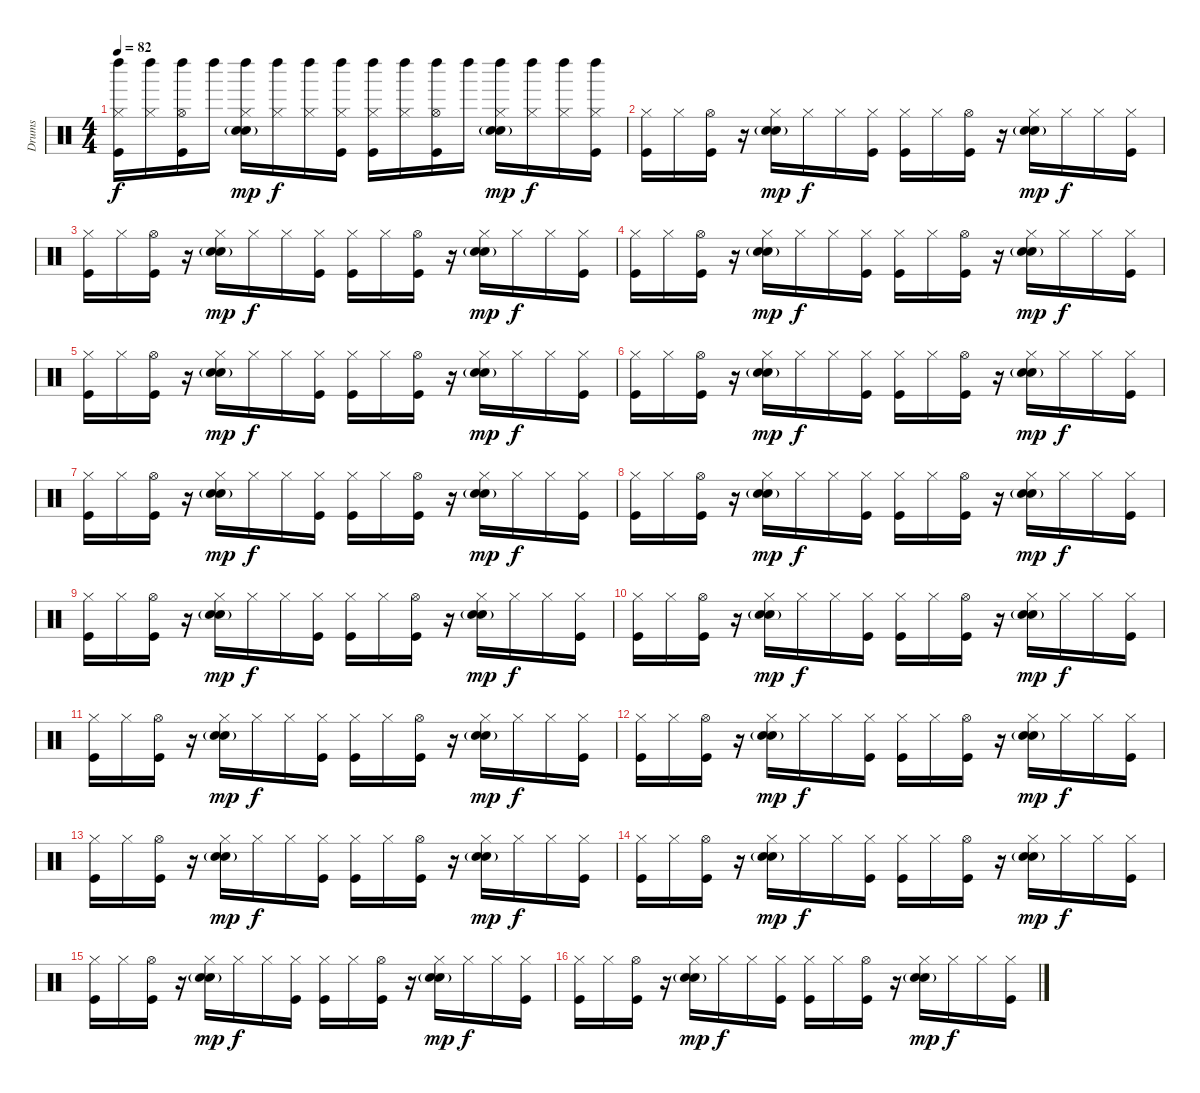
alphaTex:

\track ("Drums" "Drums") {instrument percussion}
\staff {score}
\articulation defaults
\ts (4 4)
\tempo 82
\clef neutral
\ks c
("Left Maraca (hit)" "Hi-Hat (closed)" "Kick (hit)").16{dy f} ("Left Maraca (hit)" "Hi-Hat (closed)").16 ("Left Maraca (hit)" "Hi-Hat (open)" "Kick (hit)").16 "Left Maraca (hit)".16 ("Left Maraca (hit)" "Hi-Hat (closed)" "Hand Clap (hit)" "Electric Snare (hit)"{g}).16{dy mp} ("Left Maraca (hit)" "Hi-Hat (closed)").16{dy f} ("Left Maraca (hit)" "Hi-Hat (closed)").16 ("Left Maraca (hit)" "Hi-Hat (closed)" "Kick (hit)").16 ("Left Maraca (hit)" "Hi-Hat (closed)" "Kick (hit)").16 ("Left Maraca (hit)" "Hi-Hat (closed)").16 ("Left Maraca (hit)" "Hi-Hat (open)" "Kick (hit)").16 "Left Maraca (hit)".16 ("Left Maraca (hit)" "Hi-Hat (closed)" "Hand Clap (hit)" "Electric Snare (hit)"{g}).16{dy mp} ("Left Maraca (hit)" "Hi-Hat (closed)").16{dy f} ("Left Maraca (hit)" "Hi-Hat (closed)").16 ("Left Maraca (hit)" "Hi-Hat (closed)" "Kick (hit)").16 |
("Hi-Hat (closed)" "Kick (hit)").16 "Hi-Hat (closed)".16 ("Hi-Hat (open)" "Kick (hit)").16 r.16 ("Hi-Hat (closed)" "Hand Clap (hit)" "Electric Snare (hit)"{g}).16{dy mp} "Hi-Hat (closed)".16{dy f} "Hi-Hat (closed)".16 ("Hi-Hat (closed)" "Kick (hit)").16 ("Hi-Hat (closed)" "Kick (hit)").16 "Hi-Hat (closed)".16 ("Hi-Hat (open)" "Kick (hit)").16 r.16 ("Hi-Hat (closed)" "Hand Clap (hit)" "Electric Snare (hit)"{g}).16{dy mp} "Hi-Hat (closed)".16{dy f} "Hi-Hat (closed)".16 ("Hi-Hat (closed)" "Kick (hit)").16 |
("Hi-Hat (closed)" "Kick (hit)").16 "Hi-Hat (closed)".16 ("Hi-Hat (open)" "Kick (hit)").16 r.16 ("Hi-Hat (closed)" "Hand Clap (hit)" "Electric Snare (hit)"{g}).16{dy mp} "Hi-Hat (closed)".16{dy f} "Hi-Hat (closed)".16 ("Hi-Hat (closed)" "Kick (hit)").16 ("Hi-Hat (closed)" "Kick (hit)").16 "Hi-Hat (closed)".16 ("Hi-Hat (open)" "Kick (hit)").16 r.16 ("Hi-Hat (closed)" "Hand Clap (hit)" "Electric Snare (hit)"{g}).16{dy mp} "Hi-Hat (closed)".16{dy f} "Hi-Hat (closed)".16 ("Hi-Hat (closed)" "Kick (hit)").16 |
("Hi-Hat (closed)" "Kick (hit)").16 "Hi-Hat (closed)".16 ("Hi-Hat (open)" "Kick (hit)").16 r.16 ("Hi-Hat (closed)" "Hand Clap (hit)" "Electric Snare (hit)"{g}).16{dy mp} "Hi-Hat (closed)".16{dy f} "Hi-Hat (closed)".16 ("Hi-Hat (closed)" "Kick (hit)").16 ("Hi-Hat (closed)" "Kick (hit)").16 "Hi-Hat (closed)".16 ("Hi-Hat (open)" "Kick (hit)").16 r.16 ("Hi-Hat (closed)" "Hand Clap (hit)" "Electric Snare (hit)"{g}).16{dy mp} "Hi-Hat (closed)".16{dy f} "Hi-Hat (closed)".16 ("Hi-Hat (closed)" "Kick (hit)").16 |
("Hi-Hat (closed)" "Kick (hit)").16 "Hi-Hat (closed)".16 ("Hi-Hat (open)" "Kick (hit)").16 r.16 ("Hi-Hat (closed)" "Hand Clap (hit)" "Electric Snare (hit)"{g}).16{dy mp} "Hi-Hat (closed)".16{dy f} "Hi-Hat (closed)".16 ("Hi-Hat (closed)" "Kick (hit)").16 ("Hi-Hat (closed)" "Kick (hit)").16 "Hi-Hat (closed)".16 ("Hi-Hat (open)" "Kick (hit)").16 r.16 ("Hi-Hat (closed)" "Hand Clap (hit)" "Electric Snare (hit)"{g}).16{dy mp} "Hi-Hat (closed)".16{dy f} "Hi-Hat (closed)".16 ("Hi-Hat (closed)" "Kick (hit)").16 |
("Hi-Hat (closed)" "Kick (hit)").16 "Hi-Hat (closed)".16 ("Hi-Hat (open)" "Kick (hit)").16 r.16 ("Hi-Hat (closed)" "Hand Clap (hit)" "Electric Snare (hit)"{g}).16{dy mp} "Hi-Hat (closed)".16{dy f} "Hi-Hat (closed)".16 ("Hi-Hat (closed)" "Kick (hit)").16 ("Hi-Hat (closed)" "Kick (hit)").16 "Hi-Hat (closed)".16 ("Hi-Hat (open)" "Kick (hit)").16 r.16 ("Hi-Hat (closed)" "Hand Clap (hit)" "Electric Snare (hit)"{g}).16{dy mp} "Hi-Hat (closed)".16{dy f} "Hi-Hat (closed)".16 ("Hi-Hat (closed)" "Kick (hit)").16 |
("Hi-Hat (closed)" "Kick (hit)").16 "Hi-Hat (closed)".16 ("Hi-Hat (open)" "Kick (hit)").16 r.16 ("Hi-Hat (closed)" "Hand Clap (hit)" "Electric Snare (hit)"{g}).16{dy mp} "Hi-Hat (closed)".16{dy f} "Hi-Hat (closed)".16 ("Hi-Hat (closed)" "Kick (hit)").16 ("Hi-Hat (closed)" "Kick (hit)").16 "Hi-Hat (closed)".16 ("Hi-Hat (open)" "Kick (hit)").16 r.16 ("Hi-Hat (closed)" "Hand Clap (hit)" "Electric Snare (hit)"{g}).16{dy mp} "Hi-Hat (closed)".16{dy f} "Hi-Hat (closed)".16 ("Hi-Hat (closed)" "Kick (hit)").16 |
("Hi-Hat (closed)" "Kick (hit)").16 "Hi-Hat (closed)".16 ("Hi-Hat (open)" "Kick (hit)").16 r.16 ("Hi-Hat (closed)" "Hand Clap (hit)" "Electric Snare (hit)"{g}).16{dy mp} "Hi-Hat (closed)".16{dy f} "Hi-Hat (closed)".16 ("Hi-Hat (closed)" "Kick (hit)").16 ("Hi-Hat (closed)" "Kick (hit)").16 "Hi-Hat (closed)".16 ("Hi-Hat (open)" "Kick (hit)").16 r.16 ("Hi-Hat (closed)" "Hand Clap (hit)" "Electric Snare (hit)"{g}).16{dy mp} "Hi-Hat (closed)".16{dy f} "Hi-Hat (closed)".16 ("Hi-Hat (closed)" "Kick (hit)").16 |
("Hi-Hat (closed)" "Kick (hit)").16 "Hi-Hat (closed)".16 ("Hi-Hat (open)" "Kick (hit)").16 r.16 ("Hi-Hat (closed)" "Hand Clap (hit)" "Electric Snare (hit)"{g}).16{dy mp} "Hi-Hat (closed)".16{dy f} "Hi-Hat (closed)".16 ("Hi-Hat (closed)" "Kick (hit)").16 ("Hi-Hat (closed)" "Kick (hit)").16 "Hi-Hat (closed)".16 ("Hi-Hat (open)" "Kick (hit)").16 r.16 ("Hi-Hat (closed)" "Hand Clap (hit)" "Electric Snare (hit)"{g}).16{dy mp} "Hi-Hat (closed)".16{dy f} "Hi-Hat (closed)".16 ("Hi-Hat (closed)" "Kick (hit)").16 |
("Hi-Hat (closed)" "Kick (hit)").16 "Hi-Hat (closed)".16 ("Hi-Hat (open)" "Kick (hit)").16 r.16 ("Hi-Hat (closed)" "Hand Clap (hit)" "Electric Snare (hit)"{g}).16{dy mp} "Hi-Hat (closed)".16{dy f} "Hi-Hat (closed)".16 ("Hi-Hat (closed)" "Kick (hit)").16 ("Hi-Hat (closed)" "Kick (hit)").16 "Hi-Hat (closed)".16 ("Hi-Hat (open)" "Kick (hit)").16 r.16 ("Hi-Hat (closed)" "Hand Clap (hit)" "Electric Snare (hit)"{g}).16{dy mp} "Hi-Hat (closed)".16{dy f} "Hi-Hat (closed)".16 ("Hi-Hat (closed)" "Kick (hit)").16 |
("Hi-Hat (closed)" "Kick (hit)").16 "Hi-Hat (closed)".16 ("Hi-Hat (open)" "Kick (hit)").16 r.16 ("Hi-Hat (closed)" "Hand Clap (hit)" "Electric Snare (hit)"{g}).16{dy mp} "Hi-Hat (closed)".16{dy f} "Hi-Hat (closed)".16 ("Hi-Hat (closed)" "Kick (hit)").16 ("Hi-Hat (closed)" "Kick (hit)").16 "Hi-Hat (closed)".16 ("Hi-Hat (open)" "Kick (hit)").16 r.16 ("Hi-Hat (closed)" "Hand Clap (hit)" "Electric Snare (hit)"{g}).16{dy mp} "Hi-Hat (closed)".16{dy f} "Hi-Hat (closed)".16 ("Hi-Hat (closed)" "Kick (hit)").16 |
("Hi-Hat (closed)" "Kick (hit)").16 "Hi-Hat (closed)".16 ("Hi-Hat (open)" "Kick (hit)").16 r.16 ("Hi-Hat (closed)" "Hand Clap (hit)" "Electric Snare (hit)"{g}).16{dy mp} "Hi-Hat (closed)".16{dy f} "Hi-Hat (closed)".16 ("Hi-Hat (closed)" "Kick (hit)").16 ("Hi-Hat (closed)" "Kick (hit)").16 "Hi-Hat (closed)".16 ("Hi-Hat (open)" "Kick (hit)").16 r.16 ("Hi-Hat (closed)" "Hand Clap (hit)" "Electric Snare (hit)"{g}).16{dy mp} "Hi-Hat (closed)".16{dy f} "Hi-Hat (closed)".16 ("Hi-Hat (closed)" "Kick (hit)").16 |
("Hi-Hat (closed)" "Kick (hit)").16 "Hi-Hat (closed)".16 ("Hi-Hat (open)" "Kick (hit)").16 r.16 ("Hi-Hat (closed)" "Hand Clap (hit)" "Electric Snare (hit)"{g}).16{dy mp} "Hi-Hat (closed)".16{dy f} "Hi-Hat (closed)".16 ("Hi-Hat (closed)" "Kick (hit)").16 ("Hi-Hat (closed)" "Kick (hit)").16 "Hi-Hat (closed)".16 ("Hi-Hat (open)" "Kick (hit)").16 r.16 ("Hi-Hat (closed)" "Hand Clap (hit)" "Electric Snare (hit)"{g}).16{dy mp} "Hi-Hat (closed)".16{dy f} "Hi-Hat (closed)".16 ("Hi-Hat (closed)" "Kick (hit)").16 |
("Hi-Hat (closed)" "Kick (hit)").16 "Hi-Hat (closed)".16 ("Hi-Hat (open)" "Kick (hit)").16 r.16 ("Hi-Hat (closed)" "Hand Clap (hit)" "Electric Snare (hit)"{g}).16{dy mp} "Hi-Hat (closed)".16{dy f} "Hi-Hat (closed)".16 ("Hi-Hat (closed)" "Kick (hit)").16 ("Hi-Hat (closed)" "Kick (hit)").16 "Hi-Hat (closed)".16 ("Hi-Hat (open)" "Kick (hit)").16 r.16 ("Hi-Hat (closed)" "Hand Clap (hit)" "Electric Snare (hit)"{g}).16{dy mp} "Hi-Hat (closed)".16{dy f} "Hi-Hat (closed)".16 ("Hi-Hat (closed)" "Kick (hit)").16 |
("Hi-Hat (closed)" "Kick (hit)").16 "Hi-Hat (closed)".16 ("Hi-Hat (open)" "Kick (hit)").16 r.16 ("Hi-Hat (closed)" "Hand Clap (hit)" "Electric Snare (hit)"{g}).16{dy mp} "Hi-Hat (closed)".16{dy f} "Hi-Hat (closed)".16 ("Hi-Hat (closed)" "Kick (hit)").16 ("Hi-Hat (closed)" "Kick (hit)").16 "Hi-Hat (closed)".16 ("Hi-Hat (open)" "Kick (hit)").16 r.16 ("Hi-Hat (closed)" "Hand Clap (hit)" "Electric Snare (hit)"{g}).16{dy mp} "Hi-Hat (closed)".16{dy f} "Hi-Hat (closed)".16 ("Hi-Hat (closed)" "Kick (hit)").16 |
("Hi-Hat (closed)" "Kick (hit)").16 "Hi-Hat (closed)".16 ("Hi-Hat (open)" "Kick (hit)").16 r.16 ("Hi-Hat (closed)" "Hand Clap (hit)" "Electric Snare (hit)"{g}).16{dy mp} "Hi-Hat (closed)".16{dy f} "Hi-Hat (closed)".16 ("Hi-Hat (closed)" "Kick (hit)").16 ("Hi-Hat (closed)" "Kick (hit)").16 "Hi-Hat (closed)".16 ("Hi-Hat (open)" "Kick (hit)").16 r.16 ("Hi-Hat (closed)" "Hand Clap (hit)" "Electric Snare (hit)"{g}).16{dy mp} "Hi-Hat (closed)".16{dy f} "Hi-Hat (closed)".16 ("Hi-Hat (closed)" "Kick (hit)").16
